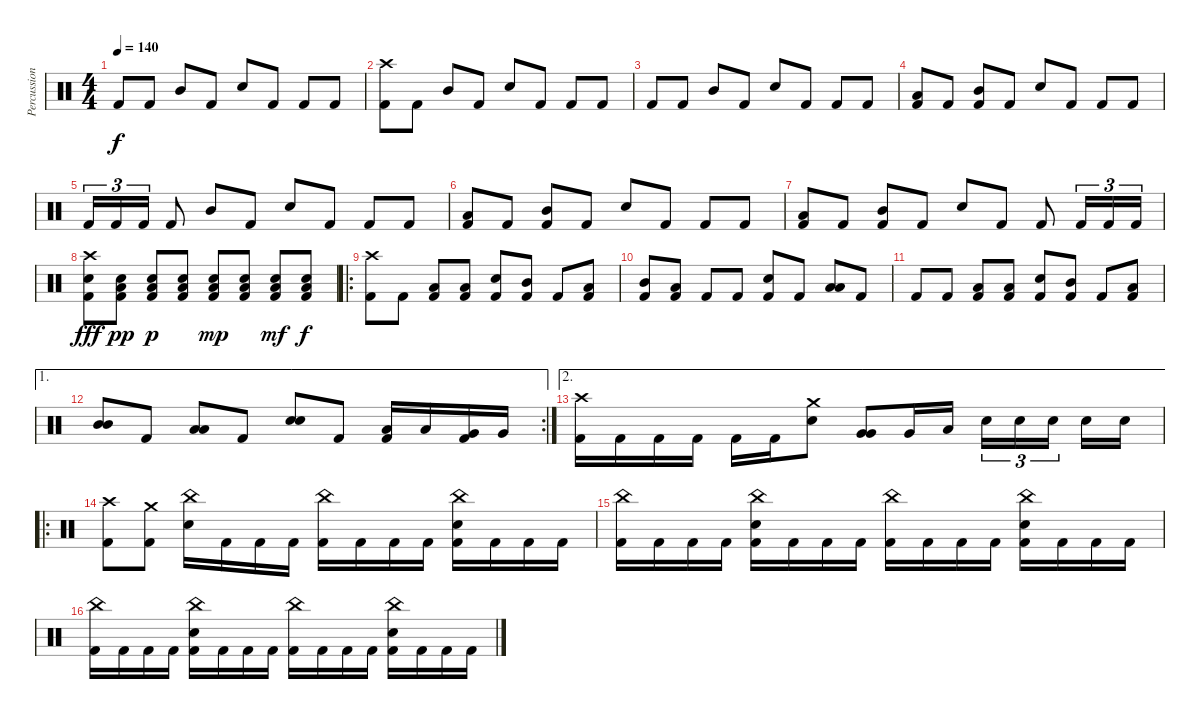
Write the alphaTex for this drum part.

\track ("Percussions" "Percussion") {instrument percussion}
\staff {score}
\articulation defaults
\ts (4 4)
\tempo 140
\clef neutral
\ks c "Kick (hit) 2".8{dy f} "Kick (hit) 2".8 "Mid Tom (hit)".8 "Kick (hit) 2".8 "Snare (hit) 2".8 "Kick (hit) 2".8 "Kick (hit) 2".8 "Kick (hit) 2".8
|
("Crash high (hit)" "Kick (hit) 2").8 "Kick (hit) 2".8 "Mid Tom (hit)".8 "Kick (hit) 2".8 "Snare (hit) 2".8 "Kick (hit) 2".8 "Kick (hit) 2".8 "Kick (hit) 2".8 |
"Kick (hit) 2".8 "Kick (hit) 2".8 "Mid Tom (hit)".8 "Kick (hit) 2".8 "Snare (hit) 2".8 "Kick (hit) 2".8 "Kick (hit) 2".8 "Kick (hit) 2".8 |
("Low Tom (hit)" "Kick (hit) 2").8 "Kick (hit) 2".8 ("Mid Tom (hit)" "Kick (hit) 2").8 "Kick (hit) 2".8 "Snare (hit) 2".8 "Kick (hit) 2".8 "Kick (hit) 2".8 "Kick (hit) 2".8 |
"Kick (hit) 2".16{tu (3 2)} "Kick (hit) 2".16{tu (3 2)} "Kick (hit) 2".16{tu (3 2)} "Kick (hit) 2".8 "Mid Tom (hit)".8 "Kick (hit) 2".8 "Snare (hit) 2".8 "Kick (hit) 2".8 "Kick (hit) 2".8 "Kick (hit) 2".8 |
("Low Tom (hit)" "Kick (hit) 2").8 "Kick (hit) 2".8 ("Mid Tom (hit)" "Kick (hit) 2").8 "Kick (hit) 2".8 "Snare (hit) 2".8 "Kick (hit) 2".8 "Kick (hit) 2".8 "Kick (hit) 2".8 |
("Low Tom (hit)" "Kick (hit) 2").8 "Kick (hit) 2".8 ("Mid Tom (hit)" "Kick (hit) 2").8 "Kick (hit) 2".8 "Snare (hit) 2".8 "Kick (hit) 2".8 "Kick (hit) 2".8 "Kick (hit) 2".16{tu (3 2)} "Kick (hit) 2".16{tu (3 2)} "Kick (hit) 2".16{tu (3 2)} |
("Crash high (hit)" "Snare (hit) 2" "Kick (hit) 2").8{dy fff} ("Snare (hit) 2" "Low Floor Tom (hit)" "Kick (hit) 2").8{dy pp} ("Snare (hit) 2" "Low Floor Tom (hit)" "Kick (hit) 2").8{dy p} ("Snare (hit) 2" "Low Floor Tom (hit)" "Kick (hit) 2").8 ("Snare (hit) 2" "Low Floor Tom (hit)" "Kick (hit) 2").8{dy mp} ("Snare (hit) 2" "Low Floor Tom (hit)" "Kick (hit) 2").8 ("Snare (hit) 2" "Low Floor Tom (hit)" "Kick (hit) 2").8{dy mf} ("Snare (hit) 2" "Low Floor Tom (hit)" "Kick (hit) 2").8{dy f} |
\ro
("Crash high (hit)" "Kick (hit) 2").8 "Kick (hit) 2".8 ("Low Floor Tom (hit)" "Kick (hit) 2").8 ("Low Floor Tom (hit)" "Kick (hit) 2").8 ("Snare (hit) 2" "Kick (hit) 2").8 ("Mid Tom (hit)" "Kick (hit) 2").8 "Kick (hit) 2".8 ("Low Tom (hit)" "Kick (hit) 2").8 |
("Mid Tom (hit)" "Kick (hit) 2").8 ("Low Tom (hit)" "Kick (hit) 2").8 "Kick (hit) 2".8 "Kick (hit) 2".8 ("Snare (hit) 2" "Kick (hit) 2").8 "Kick (hit) 2".8 ("Low Tom (hit)" "Low Tom (hit)").8{bd 120} "Kick (hit) 2".8 |
"Kick (hit) 2".8 "Kick (hit) 2".8 ("Low Floor Tom (hit)" "Kick (hit) 2").8 ("Low Floor Tom (hit)" "Kick (hit) 2").8 ("Snare (hit) 2" "Kick (hit) 2").8 ("Mid Tom (hit)" "Kick (hit) 2").8 "Kick (hit) 2".8 ("Low Tom (hit)" "Kick (hit) 2").8 |
\ae 1
\rc 2
("Mid Tom (hit)" "Mid Tom (hit)").8{bd 120} "Kick (hit) 2".8 ("Low Tom (hit)" "Low Tom (hit)").8{bd 120} "Kick (hit) 2".8 ("Snare (hit) 2" "Snare (hit) 2").8{bd 120} "Kick (hit) 2".8 ("Low Tom (hit)" "Kick (hit) 2").16 "Low Tom (hit)".16 ("Very Low Tom (hit)" "Kick (hit) 2").16 "Very Low Tom (hit)".16 |
\ae 2
("Crash high (hit)" "Kick (hit) 2").16 "Kick (hit) 2".16 "Kick (hit) 2".16 "Kick (hit) 2".16 "Kick (hit) 2".16 "Kick (hit) 2".16 ("Crash medium (hit)" "Snare (hit) 2").8 ("Very Low Tom (hit)" "Very Low Tom (hit)").8{bd 240} "Very Low Tom (hit)".16 "Low Floor Tom (hit)".16 "Snare (hit) 2".16{tu (3 2)} "Snare (hit) 2".16{tu (3 2)} "Snare (hit) 2".16{tu (3 2)} "Snare (hit) 2".16 "Snare (hit) 2".16 |
\ro
("Crash high (hit)" "Kick (hit) 2").8 ("Crash medium (hit)" "Kick (hit) 2").8 ("China (hit)" "Snare (hit) 2").16 "Kick (hit) 2".16 "Kick (hit) 2".16 "Kick (hit) 2".16 ("China (hit)" "Kick (hit) 2").16 "Kick (hit) 2".16 "Kick (hit) 2".16 "Kick (hit) 2".16 ("China (hit)" "Snare (hit) 2" "Kick (hit) 2").16 "Kick (hit) 2".16 "Kick (hit) 2".16 "Kick (hit) 2".16 |
("China (hit)" "Kick (hit) 2").16 "Kick (hit) 2".16 "Kick (hit) 2".16 "Kick (hit) 2".16 ("China (hit)" "Snare (hit) 2" "Kick (hit) 2").16 "Kick (hit) 2".16 "Kick (hit) 2".16 "Kick (hit) 2".16 ("China (hit)" "Kick (hit) 2").16 "Kick (hit) 2".16 "Kick (hit) 2".16 "Kick (hit) 2".16 ("China (hit)" "Snare (hit) 2" "Kick (hit) 2").16 "Kick (hit) 2".16 "Kick (hit) 2".16 "Kick (hit) 2".16 |
("China (hit)" "Kick (hit) 2").16 "Kick (hit) 2".16 "Kick (hit) 2".16 "Kick (hit) 2".16 ("China (hit)" "Snare (hit) 2" "Kick (hit) 2").16 "Kick (hit) 2".16 "Kick (hit) 2".16 "Kick (hit) 2".16 ("China (hit)" "Kick (hit) 2").16 "Kick (hit) 2".16 "Kick (hit) 2".16 "Kick (hit) 2".16 ("China (hit)" "Snare (hit) 2" "Kick (hit) 2").16 "Kick (hit) 2".16 "Kick (hit) 2".16 "Kick (hit) 2".16
